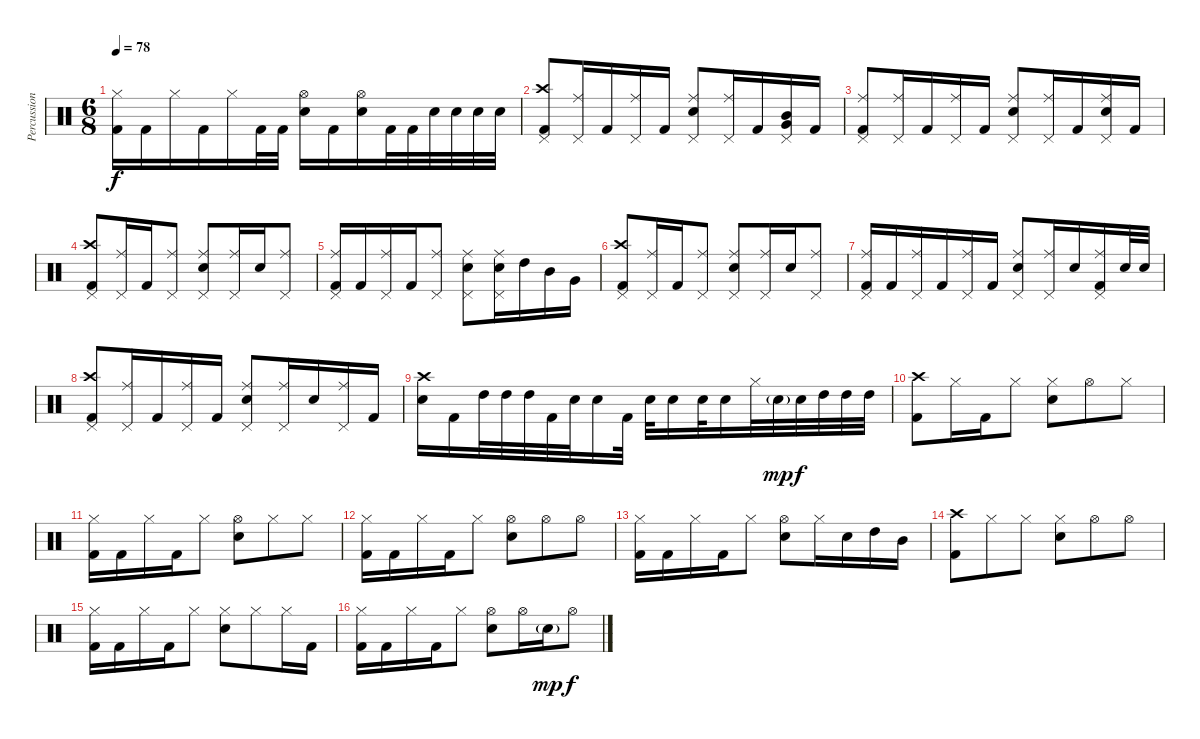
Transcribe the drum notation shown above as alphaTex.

\track ("Percussion" "Percussion") {instrument percussion}
\staff {score}
\articulation defaults
\ts (6 8)
\tempo 78
\clef neutral
\ks c
("Hi-Hat (closed)" "Kick (hit) 2").16{dy f} "Kick (hit) 2".16 "Hi-Hat (closed)".16 "Kick (hit) 2".16 "Hi-Hat (closed)".16 "Kick (hit) 2".32 "Kick (hit) 2".32 ("Hi-Hat (open)" "Electric Snare (hit)").16 "Kick (hit) 2".16 ("Hi-Hat (open)" "Electric Snare (hit)").16 "Kick (hit) 2".32 "Kick (hit) 2".32 "Electric Snare (hit)".32 "Electric Snare (hit)".32 "Electric Snare (hit)".32 "Electric Snare (hit)".32 |
("Crash high (hit)" "Pedal Hi-Hat (hit)" "Kick (hit) 2").8 ("Ride (middle)" "Pedal Hi-Hat (hit)").16 "Kick (hit) 2".16 ("Ride (middle)" "Pedal Hi-Hat (hit)").16 "Kick (hit) 2".16 ("Ride (middle)" "Pedal Hi-Hat (hit)" "Electric Snare (hit)").8 ("Ride (middle)" "Pedal Hi-Hat (hit)").16 "Kick (hit) 2".16 ("Pedal Hi-Hat (hit)" "Mid Tom (hit)" "Very Low Tom (hit)").16 "Kick (hit) 2".16 |
("Ride (middle)" "Pedal Hi-Hat (hit)" "Kick (hit) 2").8 ("Ride (middle)" "Pedal Hi-Hat (hit)").16 "Kick (hit) 2".16 ("Ride (middle)" "Pedal Hi-Hat (hit)").16 "Kick (hit) 2".16 ("Ride (middle)" "Pedal Hi-Hat (hit)" "Electric Snare (hit)").8 ("Ride (middle)" "Pedal Hi-Hat (hit)").16 "Kick (hit) 2".16 ("Ride (middle)" "Pedal Hi-Hat (hit)" "Electric Snare (hit)").16 "Kick (hit) 2".16 |
("Crash high (hit)" "Pedal Hi-Hat (hit)" "Kick (hit) 2").8 ("Ride (middle)" "Pedal Hi-Hat (hit)").16 "Kick (hit) 2".16 ("Ride (middle)" "Pedal Hi-Hat (hit)").8 ("Ride (middle)" "Pedal Hi-Hat (hit)" "Electric Snare (hit)").8 ("Ride (middle)" "Pedal Hi-Hat (hit)").16 "Electric Snare (hit)".16 ("Ride (middle)" "Pedal Hi-Hat (hit)").8 |
("Ride (middle)" "Pedal Hi-Hat (hit)" "Kick (hit) 2").16 "Kick (hit) 2".16 ("Ride (middle)" "Pedal Hi-Hat (hit)").16 "Kick (hit) 2".16 ("Ride (middle)" "Pedal Hi-Hat (hit)").8 ("Ride (middle)" "Pedal Hi-Hat (hit)" "Electric Snare (hit)").8 ("Ride (middle)" "Pedal Hi-Hat (hit)" "Electric Snare (hit)").16 "High Tom (hit)".16 "Mid Tom (hit)".16 "Very Low Tom (hit)".16 |
("Crash high (hit)" "Pedal Hi-Hat (hit)" "Kick (hit) 2").8 ("Ride (middle)" "Pedal Hi-Hat (hit)").16 "Kick (hit) 2".16 ("Ride (middle)" "Pedal Hi-Hat (hit)").8 ("Ride (middle)" "Pedal Hi-Hat (hit)" "Electric Snare (hit)").8 ("Ride (middle)" "Pedal Hi-Hat (hit)").16 "Electric Snare (hit)".16 ("Ride (middle)" "Pedal Hi-Hat (hit)").8 |
("Ride (middle)" "Pedal Hi-Hat (hit)" "Kick (hit) 2").16 "Kick (hit) 2".16 ("Ride (middle)" "Pedal Hi-Hat (hit)").16 "Kick (hit) 2".16 ("Ride (middle)" "Pedal Hi-Hat (hit)").16 "Kick (hit) 2".16 ("Ride (middle)" "Pedal Hi-Hat (hit)" "Electric Snare (hit)").8 ("Ride (middle)" "Pedal Hi-Hat (hit)").16 "Electric Snare (hit)".16 ("Ride (middle)" "Pedal Hi-Hat (hit)" "Kick (hit) 2").16 "Electric Snare (hit)".32 "Electric Snare (hit)".32 |
("Crash high (hit)" "Pedal Hi-Hat (hit)" "Kick (hit) 2").8 ("Ride (middle)" "Pedal Hi-Hat (hit)").16 "Kick (hit) 2".16 ("Ride (middle)" "Pedal Hi-Hat (hit)").16 "Kick (hit) 2".16 ("Ride (middle)" "Pedal Hi-Hat (hit)" "Electric Snare (hit)").8 ("Ride (middle)" "Pedal Hi-Hat (hit)").16 "Electric Snare (hit)".16 ("Ride (middle)" "Pedal Hi-Hat (hit)").16 "Kick (hit) 2".16 |
("Crash high (hit)" "Electric Snare (hit)").16 "Kick (hit) 2".16 "High Tom (hit)".32 "High Tom (hit)".32 "High Tom (hit)".32 "Kick (hit) 2".32 "Electric Snare (hit)".32 "Electric Snare (hit)".16 "Kick (hit) 2".32 "Electric Snare (hit)".32 "Electric Snare (hit)".16 "Electric Snare (hit)".32 "Electric Snare (hit)".16 "Hi-Hat (closed)".32 "Electric Snare (hit)"{g}.32{dy mp} "Electric Snare (hit)".32{dy f} "High Tom (hit)".32 "High Tom (hit)".32 "High Tom (hit)".32 |
("Crash high (hit)" "Kick (hit) 2").8 "Hi-Hat (closed)".16 "Kick (hit) 2".16 "Hi-Hat (closed)".8 ("Hi-Hat (closed)" "Electric Snare (hit)").8 "Hi-Hat (open)".8 "Hi-Hat (closed)".8 |
("Hi-Hat (closed)" "Kick (hit) 2").16 "Kick (hit) 2".16 "Hi-Hat (closed)".16 "Kick (hit) 2".16 "Hi-Hat (closed)".8 ("Hi-Hat (open)" "Electric Snare (hit)").8 "Hi-Hat (closed)".8 "Hi-Hat (closed)".8 |
("Hi-Hat (closed)" "Kick (hit) 2").16 "Kick (hit) 2".16 "Hi-Hat (closed)".16 "Kick (hit) 2".16 "Hi-Hat (closed)".8 ("Hi-Hat (open)" "Electric Snare (hit)").8 "Hi-Hat (open)".8 "Hi-Hat (open)".8 |
("Hi-Hat (closed)" "Kick (hit) 2").16 "Kick (hit) 2".16 "Hi-Hat (closed)".16 "Kick (hit) 2".16 "Hi-Hat (closed)".8 ("Hi-Hat (open)" "Electric Snare (hit)").8 "Hi-Hat (closed)".16 "Electric Snare (hit)".16 "High Tom (hit)".16 "Mid Tom (hit)".16 |
("Crash high (hit)" "Kick (hit) 2").8 "Hi-Hat (closed)".8 "Hi-Hat (closed)".8 ("Hi-Hat (closed)" "Electric Snare (hit)").8 "Hi-Hat (open)".8 "Hi-Hat (open)".8 |
("Hi-Hat (closed)" "Kick (hit) 2").16 "Kick (hit) 2".16 "Hi-Hat (closed)".16 "Kick (hit) 2".16 "Hi-Hat (closed)".8 ("Hi-Hat (closed)" "Electric Snare (hit)").8 "Hi-Hat (closed)".8 "Hi-Hat (closed)".16 "Kick (hit) 2".16 |
("Hi-Hat (closed)" "Kick (hit) 2").16 "Kick (hit) 2".16 "Hi-Hat (closed)".16 "Kick (hit) 2".16 "Hi-Hat (closed)".8 ("Hi-Hat (open)" "Electric Snare (hit)").8 "Hi-Hat (open)".16 "Electric Snare (hit)"{g}.16{dy mp} "Hi-Hat (open)".8{dy f}
